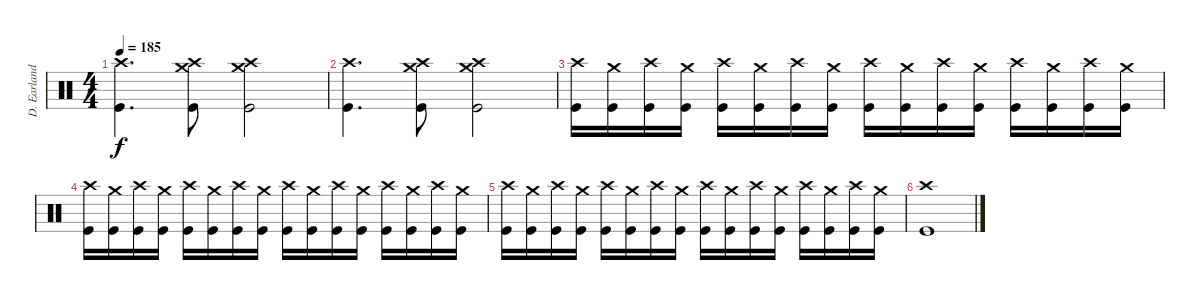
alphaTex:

\track ("D. Earlanddson" "D. Earland") {instrument percussion}
\staff {score}
\articulation defaults
\ts (4 4)
\tempo 185
\clef neutral
\ks c
("Crash high (hit)" "Kick (hit)").4{d dy f} ("Crash high (hit)" "Crash medium (hit)" "Kick (hit)").8 ("Crash high (hit)" "Crash medium (hit)" "Kick (hit)").2 |
("Crash high (hit)" "Kick (hit)").4{d} ("Crash high (hit)" "Crash medium (hit)" "Kick (hit)").8 ("Crash high (hit)" "Crash medium (hit)" "Kick (hit)").2 |
("Crash high (hit)" "Kick (hit)").16 ("Crash medium (hit)" "Kick (hit)").16 ("Crash high (hit)" "Kick (hit)").16 ("Crash medium (hit)" "Kick (hit)").16 ("Crash high (hit)" "Kick (hit)").16 ("Crash medium (hit)" "Kick (hit)").16 ("Crash high (hit)" "Kick (hit)").16 ("Crash medium (hit)" "Kick (hit)").16 ("Crash high (hit)" "Kick (hit)").16 ("Crash medium (hit)" "Kick (hit)").16 ("Crash high (hit)" "Kick (hit)").16 ("Crash medium (hit)" "Kick (hit)").16 ("Crash high (hit)" "Kick (hit)").16 ("Crash medium (hit)" "Kick (hit)").16 ("Crash high (hit)" "Kick (hit)").16 ("Crash medium (hit)" "Kick (hit)").16 |
("Crash high (hit)" "Kick (hit)").16 ("Crash medium (hit)" "Kick (hit)").16 ("Crash high (hit)" "Kick (hit)").16 ("Crash medium (hit)" "Kick (hit)").16 ("Crash high (hit)" "Kick (hit)").16 ("Crash medium (hit)" "Kick (hit)").16 ("Crash high (hit)" "Kick (hit)").16 ("Crash medium (hit)" "Kick (hit)").16 ("Crash high (hit)" "Kick (hit)").16 ("Crash medium (hit)" "Kick (hit)").16 ("Crash high (hit)" "Kick (hit)").16 ("Crash medium (hit)" "Kick (hit)").16 ("Crash high (hit)" "Kick (hit)").16 ("Crash medium (hit)" "Kick (hit)").16 ("Crash high (hit)" "Kick (hit)").16 ("Crash medium (hit)" "Kick (hit)").16 |
("Crash high (hit)" "Kick (hit)").16 ("Crash medium (hit)" "Kick (hit)").16 ("Crash high (hit)" "Kick (hit)").16 ("Crash medium (hit)" "Kick (hit)").16 ("Crash high (hit)" "Kick (hit)").16 ("Crash medium (hit)" "Kick (hit)").16 ("Crash high (hit)" "Kick (hit)").16 ("Crash medium (hit)" "Kick (hit)").16 ("Crash high (hit)" "Kick (hit)").16 ("Crash medium (hit)" "Kick (hit)").16 ("Crash high (hit)" "Kick (hit)").16 ("Crash medium (hit)" "Kick (hit)").16 ("Crash high (hit)" "Kick (hit)").16 ("Crash medium (hit)" "Kick (hit)").16 ("Crash high (hit)" "Kick (hit)").16 ("Crash medium (hit)" "Kick (hit)").16 |
("Crash high (hit)" "Kick (hit)").1
